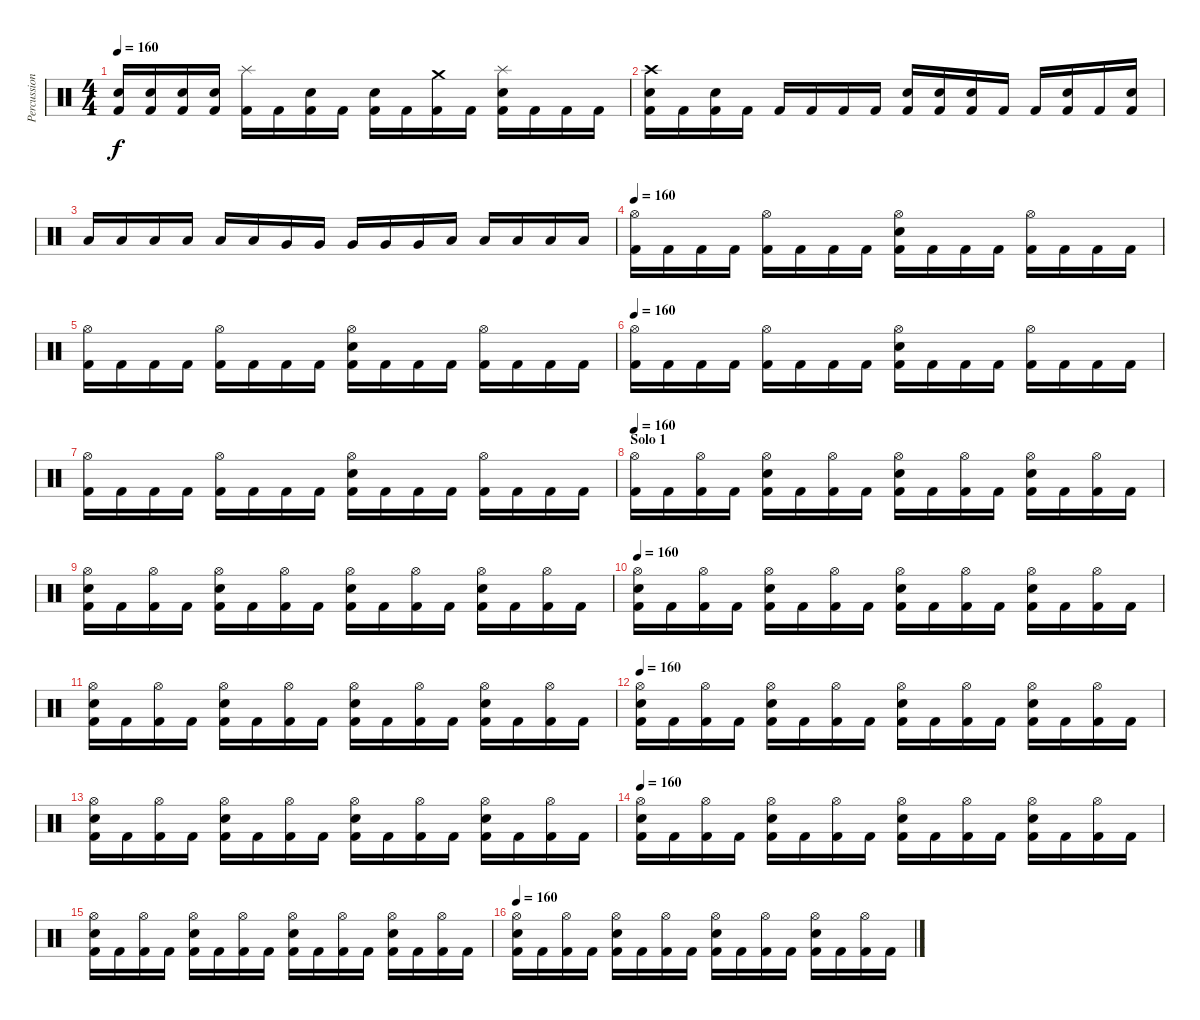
\track ("Percussions" "Percussion") {instrument percussion}
\staff {score}
\articulation defaults
\ts (4 4)
\tempo 160
\clef neutral
\ks c
("Electric Snare (hit)" "Kick (hit) 2").16{dy f} ("Electric Snare (hit)" "Kick (hit) 2").16 ("Electric Snare (hit)" "Kick (hit) 2").16 ("Electric Snare (hit)" "Kick (hit) 2").16 ("Splash (hit)" "Kick (hit) 2").16 "Kick (hit) 2".16 ("Electric Snare (hit)" "Kick (hit) 2").16 "Kick (hit) 2".16 ("Electric Snare (hit)" "Kick (hit) 2").16 "Kick (hit) 2".16 ("Crash medium (hit)" "Kick (hit) 2").16 "Kick (hit) 2".16 ("Splash (hit)" "Electric Snare (hit)" "Kick (hit) 2").16 "Kick (hit) 2".16 "Kick (hit) 2".16 "Kick (hit) 2".16 |
("Crash high (hit)" "Electric Snare (hit)" "Kick (hit) 2").16 "Kick (hit) 2".16 ("Electric Snare (hit)" "Kick (hit) 2").16 "Kick (hit) 2".16 "Kick (hit) 2".16 "Kick (hit) 2".16 "Kick (hit) 2".16 "Kick (hit) 2".16 ("Electric Snare (hit)" "Kick (hit) 2").16 ("Electric Snare (hit)" "Kick (hit) 2").16 ("Electric Snare (hit)" "Kick (hit) 2").16 "Kick (hit) 2".16 "Kick (hit) 2".16 ("Electric Snare (hit)" "Kick (hit) 2").16 "Kick (hit) 2".16 ("Electric Snare (hit)" "Kick (hit) 2").16 |
"Low Tom (hit)".16 "Low Tom (hit)".16 "Low Tom (hit)".16 "Low Tom (hit)".16 "Low Tom (hit)".16 "Low Tom (hit)".16 "Very Low Tom (hit)".16 "Very Low Tom (hit)".16 "Very Low Tom (hit)".16 "Very Low Tom (hit)".16 "Very Low Tom (hit)".16 "Low Floor Tom (hit)".16 "Low Floor Tom (hit)".16 "Low Floor Tom (hit)".16 "Low Floor Tom (hit)".16 "Low Floor Tom (hit)".16 |
\tempo 160
("Hi-Hat (open)" "Kick (hit) 2").16 "Kick (hit) 2".16 "Kick (hit) 2".16 "Kick (hit) 2".16 ("Hi-Hat (open)" "Kick (hit) 2").16 "Kick (hit) 2".16 "Kick (hit) 2".16 "Kick (hit) 2".16 ("Hi-Hat (open)" "Electric Snare (hit)" "Kick (hit) 2").16 "Kick (hit) 2".16 "Kick (hit) 2".16 "Kick (hit) 2".16 ("Hi-Hat (open)" "Kick (hit) 2").16 "Kick (hit) 2".16 "Kick (hit) 2".16 "Kick (hit) 2".16 |
("Hi-Hat (open)" "Kick (hit) 2").16 "Kick (hit) 2".16 "Kick (hit) 2".16 "Kick (hit) 2".16 ("Hi-Hat (open)" "Kick (hit) 2").16 "Kick (hit) 2".16 "Kick (hit) 2".16 "Kick (hit) 2".16 ("Hi-Hat (open)" "Electric Snare (hit)" "Kick (hit) 2").16 "Kick (hit) 2".16 "Kick (hit) 2".16 "Kick (hit) 2".16 ("Hi-Hat (open)" "Kick (hit) 2").16 "Kick (hit) 2".16 "Kick (hit) 2".16 "Kick (hit) 2".16 |
\tempo 160
("Hi-Hat (open)" "Kick (hit) 2").16 "Kick (hit) 2".16 "Kick (hit) 2".16 "Kick (hit) 2".16 ("Hi-Hat (open)" "Kick (hit) 2").16 "Kick (hit) 2".16 "Kick (hit) 2".16 "Kick (hit) 2".16 ("Hi-Hat (open)" "Electric Snare (hit)" "Kick (hit) 2").16 "Kick (hit) 2".16 "Kick (hit) 2".16 "Kick (hit) 2".16 ("Hi-Hat (open)" "Kick (hit) 2").16 "Kick (hit) 2".16 "Kick (hit) 2".16 "Kick (hit) 2".16 |
("Hi-Hat (open)" "Kick (hit) 2").16 "Kick (hit) 2".16 "Kick (hit) 2".16 "Kick (hit) 2".16 ("Hi-Hat (open)" "Kick (hit) 2").16 "Kick (hit) 2".16 "Kick (hit) 2".16 "Kick (hit) 2".16 ("Hi-Hat (open)" "Electric Snare (hit)" "Kick (hit) 2").16 "Kick (hit) 2".16 "Kick (hit) 2".16 "Kick (hit) 2".16 ("Hi-Hat (open)" "Kick (hit) 2").16 "Kick (hit) 2".16 "Kick (hit) 2".16 "Kick (hit) 2".16 |
\section ("" "Solo 1")
\tempo 160
("Hi-Hat (open)" "Kick (hit) 2").16 "Kick (hit) 2".16 ("Hi-Hat (open)" "Kick (hit) 2").16 "Kick (hit) 2".16 ("Hi-Hat (open)" "Electric Snare (hit)" "Kick (hit) 2").16 "Kick (hit) 2".16 ("Hi-Hat (open)" "Kick (hit) 2").16 "Kick (hit) 2".16 ("Hi-Hat (open)" "Electric Snare (hit)" "Kick (hit) 2").16 "Kick (hit) 2".16 ("Hi-Hat (open)" "Kick (hit) 2").16 "Kick (hit) 2".16 ("Hi-Hat (open)" "Electric Snare (hit)" "Kick (hit) 2").16 "Kick (hit) 2".16 ("Hi-Hat (open)" "Kick (hit) 2").16 "Kick (hit) 2".16 |
("Hi-Hat (open)" "Electric Snare (hit)" "Kick (hit) 2").16 "Kick (hit) 2".16 ("Hi-Hat (open)" "Kick (hit) 2").16 "Kick (hit) 2".16 ("Hi-Hat (open)" "Electric Snare (hit)" "Kick (hit) 2").16 "Kick (hit) 2".16 ("Hi-Hat (open)" "Kick (hit) 2").16 "Kick (hit) 2".16 ("Hi-Hat (open)" "Electric Snare (hit)" "Kick (hit) 2").16 "Kick (hit) 2".16 ("Hi-Hat (open)" "Kick (hit) 2").16 "Kick (hit) 2".16 ("Hi-Hat (open)" "Electric Snare (hit)" "Kick (hit) 2").16 "Kick (hit) 2".16 ("Hi-Hat (open)" "Kick (hit) 2").16 "Kick (hit) 2".16 |
\tempo 160
("Hi-Hat (open)" "Electric Snare (hit)" "Kick (hit) 2").16 "Kick (hit) 2".16 ("Hi-Hat (open)" "Kick (hit) 2").16 "Kick (hit) 2".16 ("Hi-Hat (open)" "Electric Snare (hit)" "Kick (hit) 2").16 "Kick (hit) 2".16 ("Hi-Hat (open)" "Kick (hit) 2").16 "Kick (hit) 2".16 ("Hi-Hat (open)" "Electric Snare (hit)" "Kick (hit) 2").16 "Kick (hit) 2".16 ("Hi-Hat (open)" "Kick (hit) 2").16 "Kick (hit) 2".16 ("Hi-Hat (open)" "Electric Snare (hit)" "Kick (hit) 2").16 "Kick (hit) 2".16 ("Hi-Hat (open)" "Kick (hit) 2").16 "Kick (hit) 2".16 |
("Hi-Hat (open)" "Electric Snare (hit)" "Kick (hit) 2").16 "Kick (hit) 2".16 ("Hi-Hat (open)" "Kick (hit) 2").16 "Kick (hit) 2".16 ("Hi-Hat (open)" "Electric Snare (hit)" "Kick (hit) 2").16 "Kick (hit) 2".16 ("Hi-Hat (open)" "Kick (hit) 2").16 "Kick (hit) 2".16 ("Hi-Hat (open)" "Electric Snare (hit)" "Kick (hit) 2").16 "Kick (hit) 2".16 ("Hi-Hat (open)" "Kick (hit) 2").16 "Kick (hit) 2".16 ("Hi-Hat (open)" "Electric Snare (hit)" "Kick (hit) 2").16 "Kick (hit) 2".16 ("Hi-Hat (open)" "Kick (hit) 2").16 "Kick (hit) 2".16 |
\tempo 160
("Hi-Hat (open)" "Electric Snare (hit)" "Kick (hit) 2").16 "Kick (hit) 2".16 ("Hi-Hat (open)" "Kick (hit) 2").16 "Kick (hit) 2".16 ("Hi-Hat (open)" "Electric Snare (hit)" "Kick (hit) 2").16 "Kick (hit) 2".16 ("Hi-Hat (open)" "Kick (hit) 2").16 "Kick (hit) 2".16 ("Hi-Hat (open)" "Electric Snare (hit)" "Kick (hit) 2").16 "Kick (hit) 2".16 ("Hi-Hat (open)" "Kick (hit) 2").16 "Kick (hit) 2".16 ("Hi-Hat (open)" "Electric Snare (hit)" "Kick (hit) 2").16 "Kick (hit) 2".16 ("Hi-Hat (open)" "Kick (hit) 2").16 "Kick (hit) 2".16 |
("Hi-Hat (open)" "Electric Snare (hit)" "Kick (hit) 2").16 "Kick (hit) 2".16 ("Hi-Hat (open)" "Kick (hit) 2").16 "Kick (hit) 2".16 ("Hi-Hat (open)" "Electric Snare (hit)" "Kick (hit) 2").16 "Kick (hit) 2".16 ("Hi-Hat (open)" "Kick (hit) 2").16 "Kick (hit) 2".16 ("Hi-Hat (open)" "Electric Snare (hit)" "Kick (hit) 2").16 "Kick (hit) 2".16 ("Hi-Hat (open)" "Kick (hit) 2").16 "Kick (hit) 2".16 ("Hi-Hat (open)" "Electric Snare (hit)" "Kick (hit) 2").16 "Kick (hit) 2".16 ("Hi-Hat (open)" "Kick (hit) 2").16 "Kick (hit) 2".16 |
\tempo 160
("Hi-Hat (open)" "Electric Snare (hit)" "Kick (hit) 2").16 "Kick (hit) 2".16 ("Hi-Hat (open)" "Kick (hit) 2").16 "Kick (hit) 2".16 ("Hi-Hat (open)" "Electric Snare (hit)" "Kick (hit) 2").16 "Kick (hit) 2".16 ("Hi-Hat (open)" "Kick (hit) 2").16 "Kick (hit) 2".16 ("Hi-Hat (open)" "Electric Snare (hit)" "Kick (hit) 2").16 "Kick (hit) 2".16 ("Hi-Hat (open)" "Kick (hit) 2").16 "Kick (hit) 2".16 ("Hi-Hat (open)" "Electric Snare (hit)" "Kick (hit) 2").16 "Kick (hit) 2".16 ("Hi-Hat (open)" "Kick (hit) 2").16 "Kick (hit) 2".16 |
("Hi-Hat (open)" "Electric Snare (hit)" "Kick (hit) 2").16 "Kick (hit) 2".16 ("Hi-Hat (open)" "Kick (hit) 2").16 "Kick (hit) 2".16 ("Hi-Hat (open)" "Electric Snare (hit)" "Kick (hit) 2").16 "Kick (hit) 2".16 ("Hi-Hat (open)" "Kick (hit) 2").16 "Kick (hit) 2".16 ("Hi-Hat (open)" "Electric Snare (hit)" "Kick (hit) 2").16 "Kick (hit) 2".16 ("Hi-Hat (open)" "Kick (hit) 2").16 "Kick (hit) 2".16 ("Hi-Hat (open)" "Electric Snare (hit)" "Kick (hit) 2").16 "Kick (hit) 2".16 ("Hi-Hat (open)" "Kick (hit) 2").16 "Kick (hit) 2".16 |
\tempo 160
("Hi-Hat (open)" "Electric Snare (hit)" "Kick (hit) 2").16 "Kick (hit) 2".16 ("Hi-Hat (open)" "Kick (hit) 2").16 "Kick (hit) 2".16 ("Hi-Hat (open)" "Electric Snare (hit)" "Kick (hit) 2").16 "Kick (hit) 2".16 ("Hi-Hat (open)" "Kick (hit) 2").16 "Kick (hit) 2".16 ("Hi-Hat (open)" "Electric Snare (hit)" "Kick (hit) 2").16 "Kick (hit) 2".16 ("Hi-Hat (open)" "Kick (hit) 2").16 "Kick (hit) 2".16 ("Hi-Hat (open)" "Electric Snare (hit)" "Kick (hit) 2").16 "Kick (hit) 2".16 ("Hi-Hat (open)" "Kick (hit) 2").16 "Kick (hit) 2".16
